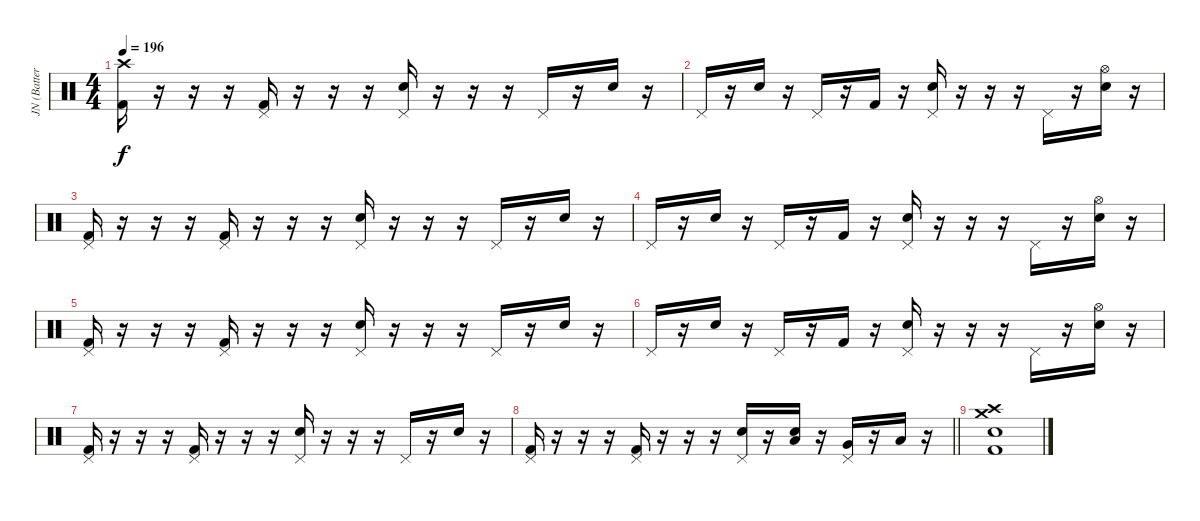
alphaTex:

\track ("JN (Batterie)" "JN (Batter") {instrument percussion}
\staff {score}
\articulation defaults
\ts (4 4)
\tempo 196
\clef neutral
\ks c
("Crash high (hit)" "Kick (hit) 2").16{dy f} r.16 r.16 r.16 ("Pedal Hi-Hat (hit)" "Kick (hit) 2").16 r.16 r.16 r.16 ("Pedal Hi-Hat (hit)" "Electric Snare (hit)").16 r.16 r.16 r.16 "Pedal Hi-Hat (hit)".16 r.16 "Electric Snare (hit)".16 r.16 |
"Pedal Hi-Hat (hit)".16 r.16 "Electric Snare (hit)".16 r.16 "Pedal Hi-Hat (hit)".16 r.16 "Kick (hit) 2".16 r.16 ("Pedal Hi-Hat (hit)" "Electric Snare (hit)").16 r.16 r.16 r.16 "Pedal Hi-Hat (hit)".16 r.16 ("Hi-Hat (open)" "Electric Snare (hit)").16 r.16 |
("Pedal Hi-Hat (hit)" "Kick (hit) 2").16 r.16 r.16 r.16 ("Pedal Hi-Hat (hit)" "Kick (hit) 2").16 r.16 r.16 r.16 ("Pedal Hi-Hat (hit)" "Electric Snare (hit)").16 r.16 r.16 r.16 "Pedal Hi-Hat (hit)".16 r.16 "Electric Snare (hit)".16 r.16 |
"Pedal Hi-Hat (hit)".16 r.16 "Electric Snare (hit)".16 r.16 "Pedal Hi-Hat (hit)".16 r.16 "Kick (hit) 2".16 r.16 ("Pedal Hi-Hat (hit)" "Electric Snare (hit)").16 r.16 r.16 r.16 "Pedal Hi-Hat (hit)".16 r.16 ("Hi-Hat (open)" "Electric Snare (hit)").16 r.16 |
("Pedal Hi-Hat (hit)" "Kick (hit) 2").16 r.16 r.16 r.16 ("Pedal Hi-Hat (hit)" "Kick (hit) 2").16 r.16 r.16 r.16 ("Pedal Hi-Hat (hit)" "Electric Snare (hit)").16 r.16 r.16 r.16 "Pedal Hi-Hat (hit)".16 r.16 "Electric Snare (hit)".16 r.16 |
"Pedal Hi-Hat (hit)".16 r.16 "Electric Snare (hit)".16 r.16 "Pedal Hi-Hat (hit)".16 r.16 "Kick (hit) 2".16 r.16 ("Pedal Hi-Hat (hit)" "Electric Snare (hit)").16 r.16 r.16 r.16 "Pedal Hi-Hat (hit)".16 r.16 ("Hi-Hat (open)" "Electric Snare (hit)").16 r.16 |
("Pedal Hi-Hat (hit)" "Kick (hit) 2").16 r.16 r.16 r.16 ("Pedal Hi-Hat (hit)" "Kick (hit) 2").16 r.16 r.16 r.16 ("Pedal Hi-Hat (hit)" "Electric Snare (hit)").16 r.16 r.16 r.16 "Pedal Hi-Hat (hit)".16 r.16 "Electric Snare (hit)".16 r.16 |
\barLineRight lightlight
("Pedal Hi-Hat (hit)" "Kick (hit) 2").16 r.16 r.16 r.16 ("Pedal Hi-Hat (hit)" "Kick (hit) 2").16 r.16 r.16 r.16 ("Pedal Hi-Hat (hit)" "Electric Snare (hit)").16 r.16 ("Low Tom (hit)" "Electric Snare (hit)").16 r.16 ("Pedal Hi-Hat (hit)" "Very Low Tom (hit)").16 r.16 "Low Tom (hit)".16 r.16 |
("Crash medium (hit)" "Crash high (hit)" "Electric Snare (hit)" "Kick (hit) 2").1
